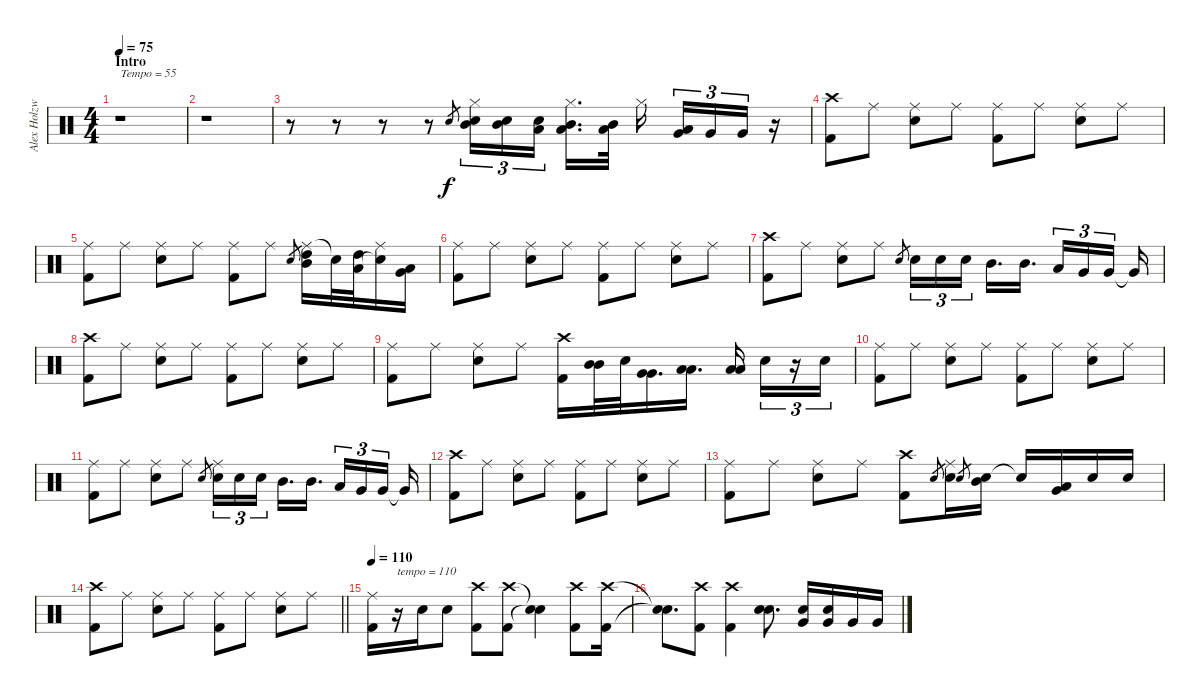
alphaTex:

\track ("Alex Holzwarth (Drums)" "Alex Holzw") {instrument percussion}
\staff {score}
\articulation defaults
\ts (4 4)
\section ("" "Intro")
\tempo 75
\tempo 55
\tempo 75
\clef neutral
\ks c
r.1{txt "Tempo = 55" dy f} |
r.1 |
r.8 r.8 r.8 r.8 "Electric Snare (hit)".8{gr} ("Hi-Hat (closed)" "Electric Snare (hit)" "Mid Tom (hit)").16{tu (3 2)} ("Electric Snare (hit)" "Mid Tom (hit)").16{tu (3 2)} ("Electric Snare (hit)" "Low Tom (hit)").16{tu (3 2) beam splitsecondary} ("Hi-Hat (closed)" "Mid Tom (hit)" "Low Tom (hit)").16{d} ("Mid Tom (hit)" "Low Tom (hit)").32 "Hi-Hat (closed)".16{beam splitsecondary} ("Low Tom (hit)" "Very Low Tom (hit)").16{tu (3 2)} "Very Low Tom (hit)".16{tu (3 2)} "Very Low Tom (hit)".16{tu (3 2)} r.16 |
("Crash high (hit)" "Kick (hit) 2").8 "Ride (middle)".8 ("Ride (middle)" "Electric Snare (hit)").8 "Ride (middle)".8 ("Ride (middle)" "Kick (hit) 2").8 "Ride (middle)".8 ("Ride (middle)" "Electric Snare (hit)").8 "Ride (middle)".8 |
("Ride (middle)" "Kick (hit) 2").8 "Ride (middle)".8 ("Ride (middle)" "Electric Snare (hit)").8 "Ride (middle)".8 ("Ride (middle)" "Kick (hit) 2").8 "Ride (middle)".8 "Snare (hit)"{x}.8{gr} ("Ride (middle)" "High Tom (hit)" "Mid Tom (hit)").16 "Snare (hit)"{t}.32 ("High Tom (hit)" "Low Tom (hit)").32 ("Ride (middle)" "Snare (hit)"{t}).16 ("Low Tom (hit)" "Very Low Tom (hit)").16 |
("Ride (middle)" "Kick (hit) 2").8 "Ride (middle)".8 ("Ride (middle)" "Electric Snare (hit)").8 "Ride (middle)".8 ("Ride (middle)" "Kick (hit) 2").8 "Ride (middle)".8 ("Ride (middle)" "Electric Snare (hit)").8 "Ride (middle)".8 |
("Crash high (hit)" "Kick (hit) 2").8 "Ride (middle)".8 ("Ride (middle)" "Electric Snare (hit)").8 "Ride (middle)".8 "Electric Snare (hit)".8{gr} "Electric Snare (hit)".16{tu (3 2)} "Electric Snare (hit)".16{tu (3 2)} "Electric Snare (hit)".16{tu (3 2) beam splitsecondary} "Mid Tom (hit)".16{d} "Mid Tom (hit)".16{d} "Low Tom (hit)".16{tu (3 2)} "Very Low Tom (hit)".16{tu (3 2)} "Very Low Tom (hit)".16{tu (3 2) beam splitsecondary} "Very Low Tom (hit)"{t}.16 |
("Crash high (hit)" "Kick (hit) 2").8 "Ride (middle)".8 ("Ride (middle)" "Electric Snare (hit)").8 "Ride (middle)".8 ("Ride (middle)" "Kick (hit) 2").8 "Ride (middle)".8 ("Ride (middle)" "Electric Snare (hit)").8 "Ride (middle)".8 |
("Ride (middle)" "Kick (hit) 2").8 "Ride (middle)".8 ("Ride (middle)" "Electric Snare (hit)").8 "Ride (middle)".8 ("Crash high (hit)" "Kick (hit) 2").16 ("Mid Tom (hit)" "Mid Tom (hit)").32 "Electric Snare (hit)".32 ("Very Low Tom (hit)" "Very Low Tom (hit)").16{d} ("Low Floor Tom (hit)" "Low Floor Tom (hit)").16{d} ("Low Floor Tom (hit)" "Low Floor Tom (hit)").16 "Electric Snare (hit)".16{tu (3 2)} r.16{tu (3 2)} "Electric Snare (hit)".16{tu (3 2)} |
("Ride (middle)" "Kick (hit) 2").8 "Ride (middle)".8 ("Ride (middle)" "Electric Snare (hit)").8 "Ride (middle)".8 ("Ride (middle)" "Kick (hit) 2").8 "Ride (middle)".8 ("Ride (middle)" "Electric Snare (hit)").8 "Ride (middle)".8 |
("Ride (middle)" "Kick (hit) 2").8 "Ride (middle)".8 ("Ride (middle)" "Electric Snare (hit)").8 "Ride (middle)".8 "Snare (hit)"{h x}.8{gr} ("Ride (middle)" "Electric Snare (hit)").16{tu (3 2)} "Electric Snare (hit)".16{tu (3 2)} "Electric Snare (hit)".16{tu (3 2) beam splitsecondary} "Mid Tom (hit)".16{d} "Mid Tom (hit)".16{d} "Low Tom (hit)".16{tu (3 2)} "Very Low Tom (hit)".16{tu (3 2)} "Very Low Tom (hit)".16{tu (3 2) beam splitsecondary} "Very Low Tom (hit)"{t}.16 |
("Crash high (hit)" "Kick (hit) 2").8 "Ride (middle)".8 ("Ride (middle)" "Electric Snare (hit)").8 "Ride (middle)".8 ("Ride (middle)" "Kick (hit) 2").8 "Ride (middle)".8 ("Ride (middle)" "Electric Snare (hit)").8 "Ride (middle)".8 |
("Ride (middle)" "Kick (hit) 2").8 "Ride (middle)".8 ("Ride (middle)" "Electric Snare (hit)").8 "Ride (middle)".8 ("Crash high (hit)" "Kick (hit) 2").8 "Electric Snare (hit)".8{gr} ("Ride (middle)" "Electric Snare (hit)").16 "Snare (hit)"{x}.8{gr} ("Electric Snare (hit)" "Mid Tom (hit)").16 "Electric Snare (hit)"{t}.16 ("Low Tom (hit)" "Very Low Tom (hit)").16 "Electric Snare (hit)".16 "Electric Snare (hit)".16 |
\barLineRight lightlight
("Crash high (hit)" "Kick (hit) 2").8 "Ride (middle)".8 ("Ride (middle)" "Electric Snare (hit)").8 "Ride (middle)".8 ("Ride (middle)" "Kick (hit) 2").8 "Ride (middle)".8 ("Ride (middle)" "Electric Snare (hit)").8 "Ride (middle)".8 |
\tempo 110
("Ride (middle)" "Kick (hit) 2").16 r.16{txt "tempo = 110"} "Electric Snare (hit)".16 "Electric Snare (hit)".8 ("Crash high (hit)" "Kick (hit) 2").8 ("Crash high (hit)" "Kick (hit) 2").8 ("Snare (hit)"{t} "Snare (hit)"{t}).4 ("Crash high (hit)" "Kick (hit) 2").8 ("Crash high (hit)" "Kick (hit) 2").16 |
("Snare (hit)"{t} "Snare (hit)"{t}).8{d} ("Crash high (hit)" "Kick (hit) 2").8 ("Crash high (hit)" "Kick (hit) 2").4 ("Electric Snare (hit)" "Electric Snare (hit)").8{d} ("Electric Snare (hit)" "Very Low Tom (hit)").16 ("Electric Snare (hit)" "Very Low Tom (hit)").16 "Very Low Tom (hit)".16 "Very Low Tom (hit)".16
